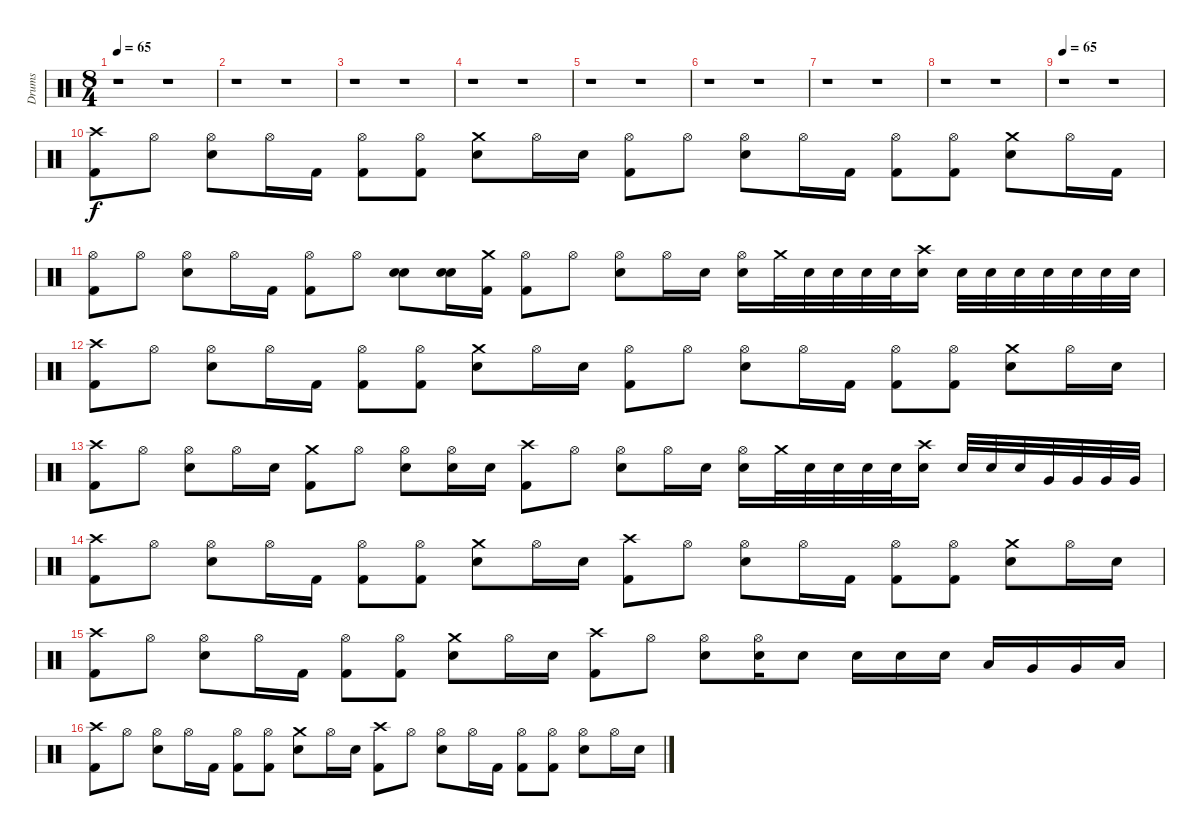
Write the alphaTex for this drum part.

\track ("Drums" "Drums") {instrument percussion}
\staff {score}
\articulation defaults
\ts (8 4)
\tempo 65
\tempo 80
\tempo 65
\clef neutral
\ks c
r.1{dy f} r.1 |
r.1 r.1 |
r.1 r.1 |
r.1 r.1 |
r.1 r.1 |
r.1 r.1 |
r.1 r.1 |
r.1 r.1 |
\tempo 65
r.1 r.1 |
("Crash high (hit)" "Kick (hit) 2").8 "Hi-Hat (open)".8 ("Hi-Hat (open)" "Electric Snare (hit)").8 "Hi-Hat (open)".16 "Kick (hit) 2".16 ("Hi-Hat (open)" "Kick (hit) 2").8 ("Hi-Hat (open)" "Kick (hit) 2").8 ("Crash medium (hit)" "Electric Snare (hit)").8 "Hi-Hat (open)".16 "Electric Snare (hit)".16 ("Hi-Hat (open)" "Kick (hit) 2").8 "Hi-Hat (open)".8 ("Hi-Hat (open)" "Electric Snare (hit)").8 "Hi-Hat (open)".16 "Kick (hit) 2".16 ("Hi-Hat (open)" "Kick (hit) 2").8 ("Hi-Hat (open)" "Kick (hit) 2").8 ("Crash medium (hit)" "Electric Snare (hit)").8 "Hi-Hat (open)".16 "Kick (hit) 2".16 |
("Hi-Hat (open)" "Kick (hit) 2").8 "Hi-Hat (open)".8 ("Hi-Hat (open)" "Electric Snare (hit)").8 "Hi-Hat (open)".16 "Kick (hit) 2".16 ("Hi-Hat (open)" "Kick (hit) 2").8 "Hi-Hat (open)".8 ("Electric Snare (hit)" "Electric Snare (hit)").8{bu 60} ("Electric Snare (hit)" "Electric Snare (hit)").16{bu 60} ("Crash medium (hit)" "Kick (hit) 2").16 ("Hi-Hat (open)" "Kick (hit) 2").8 "Hi-Hat (open)".8 ("Hi-Hat (open)" "Electric Snare (hit)").8 "Hi-Hat (open)".16 "Electric Snare (hit)".16 ("Hi-Hat (open)" "Electric Snare (hit)").16 "Crash medium (hit)".32 "Electric Snare (hit)".32 "Electric Snare (hit)".32 "Electric Snare (hit)".32 "Electric Snare (hit)".32 ("Crash high (hit)" "Electric Snare (hit)").16 "Electric Snare (hit)".32 "Electric Snare (hit)".32 "Electric Snare (hit)".32 "Electric Snare (hit)".32 "Electric Snare (hit)".32 "Electric Snare (hit)".32 "Electric Snare (hit)".32 |
("Crash high (hit)" "Kick (hit) 2").8 "Hi-Hat (open)".8 ("Hi-Hat (open)" "Electric Snare (hit)").8 "Hi-Hat (open)".16 "Kick (hit) 2".16 ("Hi-Hat (open)" "Kick (hit) 2").8 ("Hi-Hat (open)" "Kick (hit) 2").8 ("Crash medium (hit)" "Electric Snare (hit)").8 "Hi-Hat (open)".16 "Electric Snare (hit)".16 ("Hi-Hat (open)" "Kick (hit) 2").8 "Hi-Hat (open)".8 ("Hi-Hat (open)" "Electric Snare (hit)").8 "Hi-Hat (open)".16 "Kick (hit) 2".16 ("Hi-Hat (open)" "Kick (hit) 2").8 ("Hi-Hat (open)" "Kick (hit) 2").8 ("Crash medium (hit)" "Electric Snare (hit)").8 "Hi-Hat (open)".16 "Electric Snare (hit)".16 |
("Crash high (hit)" "Kick (hit) 2").8 "Hi-Hat (open)".8 ("Hi-Hat (open)" "Electric Snare (hit)").8 "Hi-Hat (open)".16 "Electric Snare (hit)".16 ("Crash medium (hit)" "Kick (hit) 2").8 "Hi-Hat (open)".8 ("Hi-Hat (open)" "Electric Snare (hit)").8 ("Hi-Hat (open)" "Electric Snare (hit)").16 "Electric Snare (hit)".16 ("Crash high (hit)" "Kick (hit) 2").8 "Hi-Hat (open)".8 ("Hi-Hat (open)" "Electric Snare (hit)").8 "Hi-Hat (open)".16 "Electric Snare (hit)".16 ("Hi-Hat (open)" "Electric Snare (hit)").16 "Crash medium (hit)".32 "Electric Snare (hit)".32 "Electric Snare (hit)".32 "Electric Snare (hit)".32 "Electric Snare (hit)".32 ("Crash high (hit)" "Electric Snare (hit)").16 "Electric Snare (hit)".32 "Electric Snare (hit)".32 "Electric Snare (hit)".32 "Very Low Tom (hit)".32 "Very Low Tom (hit)".32 "Very Low Tom (hit)".32 "Very Low Tom (hit)".32 |
("Crash high (hit)" "Kick (hit) 2").8 "Hi-Hat (open)".8 ("Hi-Hat (open)" "Electric Snare (hit)").8 "Hi-Hat (open)".16 "Kick (hit) 2".16 ("Hi-Hat (open)" "Kick (hit) 2").8 ("Hi-Hat (open)" "Kick (hit) 2").8 ("Crash medium (hit)" "Electric Snare (hit)").8 "Hi-Hat (open)".16 "Electric Snare (hit)".16 ("Crash high (hit)" "Kick (hit) 2").8 "Hi-Hat (open)".8 ("Hi-Hat (open)" "Electric Snare (hit)").8 "Hi-Hat (open)".16 "Kick (hit) 2".16 ("Hi-Hat (open)" "Kick (hit) 2").8 ("Hi-Hat (open)" "Kick (hit) 2").8 ("Crash medium (hit)" "Electric Snare (hit)").8 "Hi-Hat (open)".16 "Electric Snare (hit)".16 |
("Crash high (hit)" "Kick (hit) 2").8 "Hi-Hat (open)".8 ("Hi-Hat (open)" "Electric Snare (hit)").8 "Hi-Hat (open)".16 "Kick (hit) 2".16 ("Hi-Hat (open)" "Kick (hit) 2").8 ("Hi-Hat (open)" "Kick (hit) 2").8 ("Crash medium (hit)" "Electric Snare (hit)").8 "Hi-Hat (open)".16 "Electric Snare (hit)".16 ("Crash high (hit)" "Kick (hit) 2").8 "Hi-Hat (open)".8 ("Hi-Hat (open)" "Electric Snare (hit)").8 ("Hi-Hat (open)" "Electric Snare (hit)").16 "Electric Snare (hit)".8 "Electric Snare (hit)".16 "Electric Snare (hit)".16 "Electric Snare (hit)".16 "Low Tom (hit)".16 "Very Low Tom (hit)".16 "Very Low Tom (hit)".16 "Low Floor Tom (hit)".16 |
("Crash high (hit)" "Kick (hit) 2").8 "Hi-Hat (open)".8 ("Hi-Hat (open)" "Electric Snare (hit)").8 "Hi-Hat (open)".16 "Kick (hit) 2".16 ("Hi-Hat (open)" "Kick (hit) 2").8 ("Hi-Hat (open)" "Kick (hit) 2").8 ("Crash medium (hit)" "Electric Snare (hit)").8 "Hi-Hat (open)".16 "Electric Snare (hit)".16 ("Crash high (hit)" "Kick (hit) 2").8 "Hi-Hat (open)".8 ("Hi-Hat (open)" "Electric Snare (hit)").8 "Hi-Hat (open)".16 "Kick (hit) 2".16 ("Hi-Hat (open)" "Kick (hit) 2").8 ("Hi-Hat (open)" "Kick (hit) 2").8 ("Hi-Hat (open)" "Electric Snare (hit)").8 "Hi-Hat (open)".16 "Electric Snare (hit)".16
